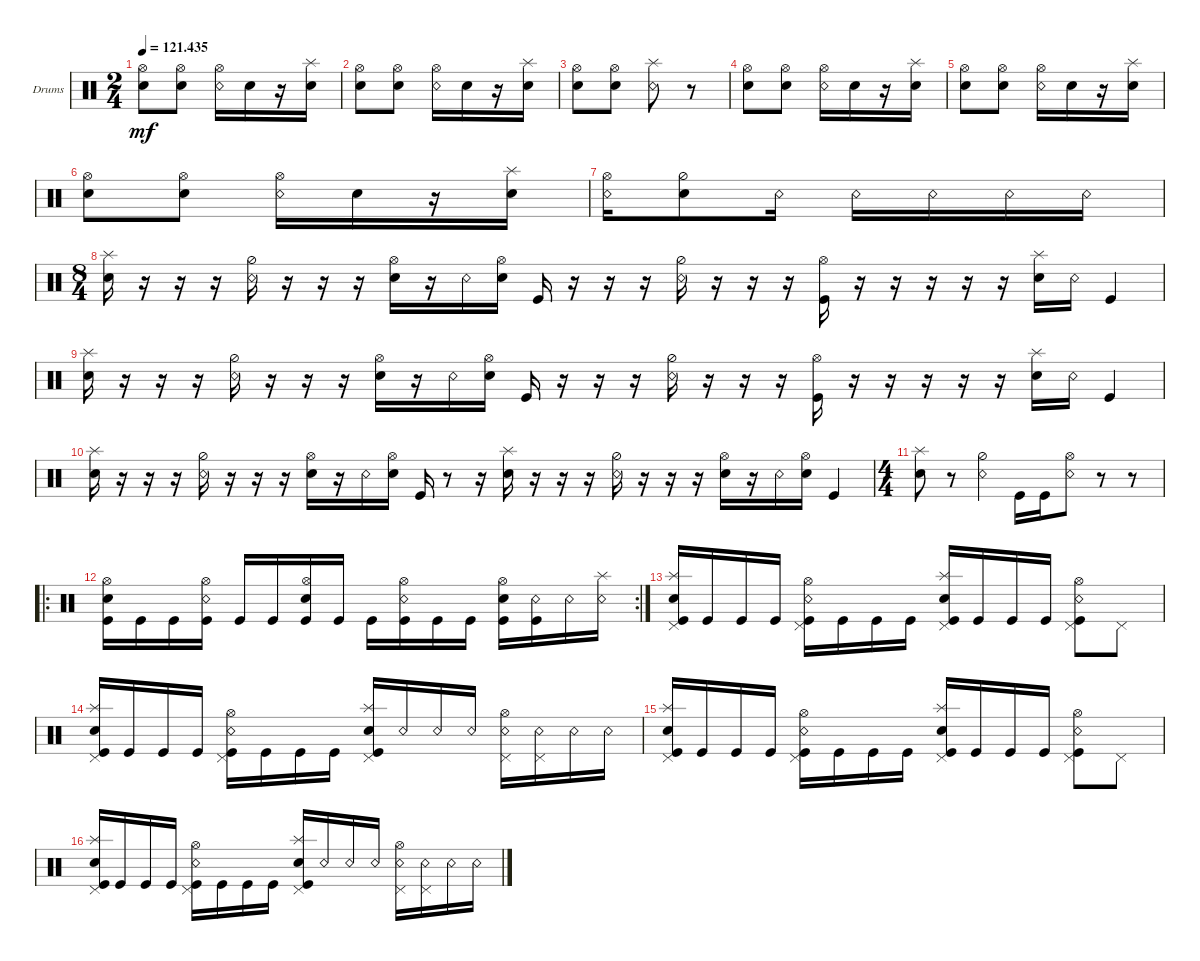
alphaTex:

\bracketExtendMode groupsimilarinstruments
\firstSystemTrackNameOrientation horizontal
\otherSystemsTrackNameOrientation horizontal
\track ("Drumkit" "Drums") {instrument percussion}
\staff {score}
\articulation defaults
\ts (2 4)
\tempo
121.435
\accidentals auto
\clef neutral
\ottava regular
\simile none
\ks c
("Snare (hit) 2" "Hi-Hat (open)").8{dy mf} ("Snare (hit) 2" "Hi-Hat (open)").8 ("Snare (rim shot)" "Hi-Hat (open)").16 "Snare (hit) 2".16 r.16 ("Snare (hit) 2" "Splash (hit)").16 |
("Snare (hit) 2" "Hi-Hat (open)").8 ("Snare (hit) 2" "Hi-Hat (open)").8 ("Snare (rim shot)" "Hi-Hat (open)").16 "Snare (hit) 2".16 r.16 ("Snare (hit) 2" "Splash (hit)").16 |
("Snare (hit) 2" "Hi-Hat (open)").8 ("Snare (hit) 2" "Hi-Hat (open)").8 ("Snare (rim shot)" "Splash (hit)").8 r.8 |
("Snare (hit) 2" "Hi-Hat (open)").8 ("Snare (hit) 2" "Hi-Hat (open)").8 ("Snare (rim shot)" "Hi-Hat (open)").16 "Snare (hit) 2".16 r.16 ("Snare (hit) 2" "Splash (hit)").16 |
("Snare (hit) 2" "Hi-Hat (open)").8 ("Snare (hit) 2" "Hi-Hat (open)").8 ("Snare (rim shot)" "Hi-Hat (open)").16 "Snare (hit) 2".16 r.16 ("Snare (hit) 2" "Splash (hit)").16 |
("Snare (hit) 2" "Hi-Hat (open)").8 ("Snare (hit) 2" "Hi-Hat (open)").8 ("Snare (rim shot)" "Hi-Hat (open)").16 "Snare (hit) 2".16 r.16 ("Snare (hit) 2" "Splash (hit)").16 |
("Snare (rim shot)" "Hi-Hat (open)").16 ("Snare (hit) 2" "Hi-Hat (half)").8 "Snare (rim shot)".16 "Snare (rim shot)".16 "Snare (rim shot)".16 "Snare (rim shot)".16 "Snare (rim shot)".16 |
\ts (8 4)
("Snare (hit) 2" "Splash (hit)").16 r.16 r.16 r.16 ("Snare (rim shot)" "Hi-Hat (half)").16 r.16 r.16 r.16 ("Hi-Hat (open)" "Snare (hit) 2").16 r.16 "Snare (rim shot)".16 ("Snare (hit) 2" "Hi-Hat (open)").16 "Kick (hit)".16 r.16 r.16 r.16 ("Snare (rim shot)" "Hi-Hat (half)").16 r.16 r.16 r.16 ("Kick (hit)" "Hi-Hat (open)").16 r.16 r.16 r.16 r.16 r.16 ("Snare (hit) 2" "Splash (hit)").16 "Snare (rim shot)".16 "Kick (hit)".4 |
("Snare (hit) 2" "Splash (hit)").16 r.16 r.16 r.16 ("Snare (rim shot)" "Hi-Hat (half)").16 r.16 r.16 r.16 ("Hi-Hat (open)" "Snare (hit) 2").16 r.16 "Snare (rim shot)".16 ("Snare (hit) 2" "Hi-Hat (open)").16 "Kick (hit)".16 r.16 r.16 r.16 ("Snare (rim shot)" "Hi-Hat (half)").16 r.16 r.16 r.16 ("Kick (hit)" "Hi-Hat (open)").16 r.16 r.16 r.16 r.16 r.16 ("Snare (hit) 2" "Splash (hit)").16 "Snare (rim shot)".16 "Kick (hit)".4 |
("Snare (hit) 2" "Splash (hit)").16 r.16 r.16 r.16 ("Snare (rim shot)" "Hi-Hat (half)").16 r.16 r.16 r.16 ("Hi-Hat (open)" "Snare (hit) 2").16 r.16 "Snare (rim shot)".16 ("Snare (hit) 2" "Hi-Hat (open)").16 "Kick (hit)".16 r.8 r.16 ("Snare (hit) 2" "Splash (hit)").16 r.16 r.16 r.16 ("Snare (rim shot)" "Hi-Hat (half)").16 r.16 r.16 r.16 ("Hi-Hat (open)" "Snare (hit) 2").16 r.16 "Snare (rim shot)".16 ("Snare (hit) 2" "Hi-Hat (open)").16 "Kick (hit)".4 |
\ts (4 4)
("Snare (hit) 2" "Splash (hit)").8 r.8 ("Snare (rim shot)" "Hi-Hat (half)").4 "Kick (hit)".16 "Kick (hit)".16 ("Snare (rim shot)" "Hi-Hat (open)").8 r.8 r.8 |
\ro
\rc 2
("Snare (hit) 2" "Hi-Hat (open)" "Kick (hit)").16 "Kick (hit)".16 "Kick (hit)".16 ("Snare (rim shot)" "Hi-Hat (open)" "Kick (hit)").16 "Kick (hit)".16 "Kick (hit)".16 ("Snare (hit) 2" "Hi-Hat (open)" "Kick (hit)").16 "Kick (hit)".16 "Kick (hit)".16 ("Snare (rim shot)" "Hi-Hat (open)" "Kick (hit)").16 "Kick (hit)".16 "Kick (hit)".16 ("Snare (hit) 2" "Hi-Hat (open)" "Kick (hit)").16 ("Snare (rim shot)" "Kick (hit)").16 "Snare (rim shot)".16 ("Snare (rim shot)" "Splash (hit)").16 |
("Kick (hit)" "Snare (hit) 2" "Splash (hit)" "Pedal Hi-Hat (hit)").16 "Kick (hit)".16 "Kick (hit)".16 "Kick (hit)".16 ("Kick (hit)" "Snare (rim shot)" "Hi-Hat (open)" "Pedal Hi-Hat (hit)").16 "Kick (hit)".16 "Kick (hit)".16 "Kick (hit)".16 ("Kick (hit)" "Snare (hit) 2" "Splash (hit)" "Pedal Hi-Hat (hit)").16 "Kick (hit)".16 "Kick (hit)".16 "Kick (hit)".16 ("Kick (hit)" "Snare (rim shot)" "Hi-Hat (open)" "Pedal Hi-Hat (hit)").8 "Pedal Hi-Hat (hit)".8 |
("Kick (hit)" "Snare (hit) 2" "Splash (hit)" "Pedal Hi-Hat (hit)").16 "Kick (hit)".16 "Kick (hit)".16 "Kick (hit)".16 ("Kick (hit)" "Snare (rim shot)" "Hi-Hat (open)" "Pedal Hi-Hat (hit)").16 "Kick (hit)".16 "Kick (hit)".16 "Kick (hit)".16 ("Kick (hit)" "Snare (hit) 2" "Splash (hit)" "Pedal Hi-Hat (hit)").16 "Snare (rim shot)".16 "Snare (rim shot)".16 "Snare (rim shot)".16 ("Snare (rim shot)" "Hi-Hat (open)" "Pedal Hi-Hat (hit)").16 ("Pedal Hi-Hat (hit)" "Snare (rim shot)").16 "Snare (rim shot)".16 "Snare (rim shot)".16 |
("Kick (hit)" "Snare (hit) 2" "Splash (hit)" "Pedal Hi-Hat (hit)").16 "Kick (hit)".16 "Kick (hit)".16 "Kick (hit)".16 ("Kick (hit)" "Snare (rim shot)" "Hi-Hat (open)" "Pedal Hi-Hat (hit)").16 "Kick (hit)".16 "Kick (hit)".16 "Kick (hit)".16 ("Kick (hit)" "Snare (hit) 2" "Splash (hit)" "Pedal Hi-Hat (hit)").16 "Kick (hit)".16 "Kick (hit)".16 "Kick (hit)".16 ("Kick (hit)" "Snare (rim shot)" "Hi-Hat (open)" "Pedal Hi-Hat (hit)").8 "Pedal Hi-Hat (hit)".8 |
("Kick (hit)" "Snare (hit) 2" "Splash (hit)" "Pedal Hi-Hat (hit)").16 "Kick (hit)".16 "Kick (hit)".16 "Kick (hit)".16 ("Kick (hit)" "Snare (rim shot)" "Hi-Hat (open)" "Pedal Hi-Hat (hit)").16 "Kick (hit)".16 "Kick (hit)".16 "Kick (hit)".16 ("Kick (hit)" "Snare (hit) 2" "Splash (hit)" "Pedal Hi-Hat (hit)").16 "Snare (rim shot)".16 "Snare (rim shot)".16 "Snare (rim shot)".16 ("Snare (rim shot)" "Hi-Hat (open)" "Pedal Hi-Hat (hit)").16 ("Pedal Hi-Hat (hit)" "Snare (rim shot)").16 "Snare (rim shot)".16 "Snare (rim shot)".16
